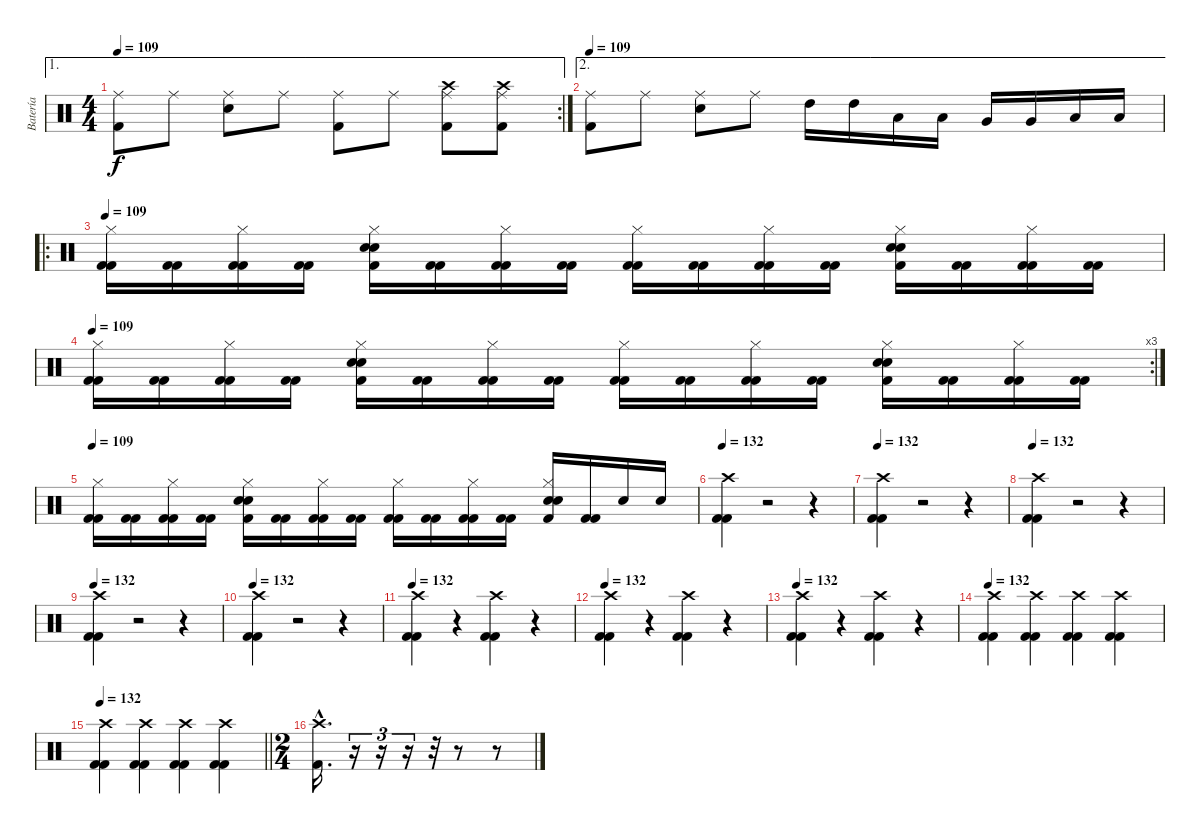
\track ("Batería   (Jony)" "Batería   ") {instrument percussion}
\staff {score}
\articulation defaults
\ae 1
\rc 2
\ts (4 4)
\tempo 109
\clef neutral
\ks c
("Kick (hit) 2" "Ride (middle)").8{dy f} "Ride (middle)".8 ("Snare (hit) 2" "Ride (middle)").8 "Ride (middle)".8 ("Kick (hit) 2" "Ride (middle)").8 "Ride (middle)".8 ("Kick (hit) 2" "Ride (middle)" "Crash high (hit)").8 ("Kick (hit) 2" "Ride (middle)" "Crash high (hit)").8 |
\ae 2
\tempo 109
("Kick (hit) 2" "Ride (middle)").8 "Ride (middle)".8 ("Snare (hit) 2" "Ride (middle)").8 "Ride (middle)".8 "High Tom (hit)".16 "High Tom (hit)".16 "Low Tom (hit)".16 "Low Tom (hit)".16 "Very Low Tom (hit)".16 "Very Low Tom (hit)".16 "Low Floor Tom (hit)".16 "Low Floor Tom (hit)".16 |
\ro
\tempo 109
("Kick (hit) 2" "Kick (hit) 2" "Hi-Hat (closed)").16 ("Kick (hit) 2" "Kick (hit) 2").16 ("Kick (hit) 2" "Kick (hit) 2" "Hi-Hat (closed)").16 ("Kick (hit) 2" "Kick (hit) 2").16 ("Kick (hit) 2" "Snare (hit) 2" "Hi-Hat (closed)" "Electric Snare (hit)").16 ("Kick (hit) 2" "Kick (hit) 2").16 ("Kick (hit) 2" "Kick (hit) 2" "Hi-Hat (closed)").16 ("Kick (hit) 2" "Kick (hit) 2").16 ("Kick (hit) 2" "Kick (hit) 2" "Hi-Hat (closed)").16 ("Kick (hit) 2" "Kick (hit) 2").16 ("Kick (hit) 2" "Kick (hit) 2" "Hi-Hat (closed)").16 ("Kick (hit) 2" "Kick (hit) 2").16 ("Kick (hit) 2" "Snare (hit) 2" "Hi-Hat (closed)" "Electric Snare (hit)").16 ("Kick (hit) 2" "Kick (hit) 2").16 ("Kick (hit) 2" "Kick (hit) 2" "Hi-Hat (closed)").16 ("Kick (hit) 2" "Kick (hit) 2").16 |
\rc 3
\tempo 109
("Kick (hit) 2" "Kick (hit) 2" "Hi-Hat (closed)").16 ("Kick (hit) 2" "Kick (hit) 2").16 ("Kick (hit) 2" "Kick (hit) 2" "Hi-Hat (closed)").16 ("Kick (hit) 2" "Kick (hit) 2").16 ("Kick (hit) 2" "Snare (hit) 2" "Hi-Hat (closed)" "Electric Snare (hit)").16 ("Kick (hit) 2" "Kick (hit) 2").16 ("Kick (hit) 2" "Kick (hit) 2" "Hi-Hat (closed)").16 ("Kick (hit) 2" "Kick (hit) 2").16 ("Kick (hit) 2" "Kick (hit) 2" "Hi-Hat (closed)").16 ("Kick (hit) 2" "Kick (hit) 2").16 ("Kick (hit) 2" "Kick (hit) 2" "Hi-Hat (closed)").16 ("Kick (hit) 2" "Kick (hit) 2").16 ("Kick (hit) 2" "Snare (hit) 2" "Hi-Hat (closed)" "Electric Snare (hit)").16 ("Kick (hit) 2" "Kick (hit) 2").16 ("Kick (hit) 2" "Kick (hit) 2" "Hi-Hat (closed)").16 ("Kick (hit) 2" "Kick (hit) 2").16 |
\tempo 109
("Kick (hit) 2" "Kick (hit) 2" "Hi-Hat (closed)").16 ("Kick (hit) 2" "Kick (hit) 2").16 ("Kick (hit) 2" "Kick (hit) 2" "Hi-Hat (closed)").16 ("Kick (hit) 2" "Kick (hit) 2").16 ("Kick (hit) 2" "Snare (hit) 2" "Hi-Hat (closed)" "Electric Snare (hit)").16 ("Kick (hit) 2" "Kick (hit) 2").16 ("Kick (hit) 2" "Kick (hit) 2" "Hi-Hat (closed)").16 ("Kick (hit) 2" "Kick (hit) 2").16 ("Kick (hit) 2" "Kick (hit) 2" "Hi-Hat (closed)").16 ("Kick (hit) 2" "Kick (hit) 2").16 ("Kick (hit) 2" "Kick (hit) 2" "Hi-Hat (closed)").16 ("Kick (hit) 2" "Kick (hit) 2").16 ("Kick (hit) 2" "Snare (hit) 2" "Hi-Hat (closed)" "Electric Snare (hit)").16 ("Kick (hit) 2" "Kick (hit) 2").16 "Electric Snare (hit)".16 "Electric Snare (hit)".16 |
\tempo 132
("Kick (hit) 2" "Crash high (hit)" "Kick (hit) 2").4 r.2 r.4 |
\tempo 132
("Kick (hit) 2" "Crash high (hit)" "Kick (hit) 2").4 r.2 r.4 |
\tempo 132
("Kick (hit) 2" "Crash high (hit)" "Kick (hit) 2").4 r.2 r.4 |
\tempo 132
("Kick (hit) 2" "Crash high (hit)" "Kick (hit) 2").4 r.2 r.4 |
\tempo 132
("Kick (hit) 2" "Crash high (hit)" "Kick (hit) 2").4 r.2 r.4 |
\tempo 132
("Kick (hit) 2" "Crash high (hit)" "Kick (hit) 2").4 r.4 ("Kick (hit) 2" "Crash high (hit)" "Kick (hit) 2").4 r.4 |
\tempo 132
("Kick (hit) 2" "Crash high (hit)" "Kick (hit) 2").4 r.4 ("Kick (hit) 2" "Crash high (hit)" "Kick (hit) 2").4 r.4 |
\tempo 132
("Kick (hit) 2" "Crash high (hit)" "Kick (hit) 2").4 r.4 ("Kick (hit) 2" "Crash high (hit)" "Kick (hit) 2").4 r.4 |
\tempo 132
("Kick (hit) 2" "Crash high (hit)" "Kick (hit) 2").4 ("Kick (hit) 2" "Crash high (hit)" "Kick (hit) 2").4 ("Kick (hit) 2" "Crash high (hit)" "Kick (hit) 2").4 ("Kick (hit) 2" "Crash high (hit)" "Kick (hit) 2").4 |
\tempo 132
\barLineRight lightlight
("Kick (hit) 2" "Crash high (hit)" "Kick (hit) 2").4 ("Kick (hit) 2" "Crash high (hit)" "Kick (hit) 2").4 ("Kick (hit) 2" "Crash high (hit)" "Kick (hit) 2").4 ("Kick (hit) 2" "Crash high (hit)" "Kick (hit) 2").4 |
\ts (2 4)
("Crash high (hit)"{hac} "Kick (hit) 2"{hac}).16{d} r.16{tu (3 2)} r.16{tu (3 2)} r.16{tu (3 2)} r.32 r.8 r.8
